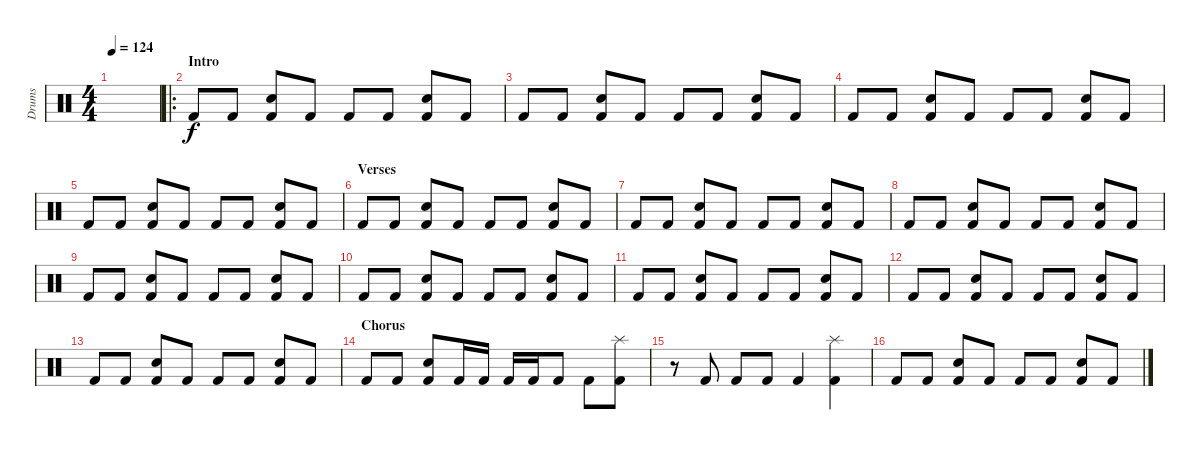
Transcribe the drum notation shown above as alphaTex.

\track ("Drums" "Drums") {instrument percussion}
\staff {score}
\articulation defaults
\ts (4 4)
\tempo 124
\clef neutral
\ks c
|
\ro
\section ("" "Intro")
"Kick (hit) 2".8 "Kick (hit) 2".8 ("Kick (hit) 2" "Electric Snare (hit)").8 "Kick (hit) 2".8 "Kick (hit) 2".8 "Kick (hit) 2".8 ("Kick (hit) 2" "Electric Snare (hit)").8 "Kick (hit) 2".8 |
"Kick (hit) 2".8 "Kick (hit) 2".8 ("Kick (hit) 2" "Electric Snare (hit)").8 "Kick (hit) 2".8 "Kick (hit) 2".8 "Kick (hit) 2".8 ("Kick (hit) 2" "Electric Snare (hit)").8 "Kick (hit) 2".8 |
"Kick (hit) 2".8 "Kick (hit) 2".8 ("Kick (hit) 2" "Electric Snare (hit)").8 "Kick (hit) 2".8 "Kick (hit) 2".8 "Kick (hit) 2".8 ("Kick (hit) 2" "Electric Snare (hit)").8 "Kick (hit) 2".8 |
"Kick (hit) 2".8 "Kick (hit) 2".8 ("Kick (hit) 2" "Electric Snare (hit)").8 "Kick (hit) 2".8 "Kick (hit) 2".8 "Kick (hit) 2".8 ("Kick (hit) 2" "Electric Snare (hit)").8 "Kick (hit) 2".8 |
\section ("" "Verses")
"Kick (hit) 2".8 "Kick (hit) 2".8 ("Kick (hit) 2" "Electric Snare (hit)").8 "Kick (hit) 2".8 "Kick (hit) 2".8 "Kick (hit) 2".8 ("Kick (hit) 2" "Electric Snare (hit)").8 "Kick (hit) 2".8 |
"Kick (hit) 2".8 "Kick (hit) 2".8 ("Kick (hit) 2" "Electric Snare (hit)").8 "Kick (hit) 2".8 "Kick (hit) 2".8 "Kick (hit) 2".8 ("Kick (hit) 2" "Electric Snare (hit)").8 "Kick (hit) 2".8 |
"Kick (hit) 2".8 "Kick (hit) 2".8 ("Kick (hit) 2" "Electric Snare (hit)").8 "Kick (hit) 2".8 "Kick (hit) 2".8 "Kick (hit) 2".8 ("Kick (hit) 2" "Electric Snare (hit)").8 "Kick (hit) 2".8 |
"Kick (hit) 2".8 "Kick (hit) 2".8 ("Kick (hit) 2" "Electric Snare (hit)").8 "Kick (hit) 2".8 "Kick (hit) 2".8 "Kick (hit) 2".8 ("Kick (hit) 2" "Electric Snare (hit)").8 "Kick (hit) 2".8 |
"Kick (hit) 2".8 "Kick (hit) 2".8 ("Kick (hit) 2" "Electric Snare (hit)").8 "Kick (hit) 2".8 "Kick (hit) 2".8 "Kick (hit) 2".8 ("Kick (hit) 2" "Electric Snare (hit)").8 "Kick (hit) 2".8 |
"Kick (hit) 2".8 "Kick (hit) 2".8 ("Kick (hit) 2" "Electric Snare (hit)").8 "Kick (hit) 2".8 "Kick (hit) 2".8 "Kick (hit) 2".8 ("Kick (hit) 2" "Electric Snare (hit)").8 "Kick (hit) 2".8 |
"Kick (hit) 2".8 "Kick (hit) 2".8 ("Kick (hit) 2" "Electric Snare (hit)").8 "Kick (hit) 2".8 "Kick (hit) 2".8 "Kick (hit) 2".8 ("Kick (hit) 2" "Electric Snare (hit)").8 "Kick (hit) 2".8 |
"Kick (hit) 2".8 "Kick (hit) 2".8 ("Kick (hit) 2" "Electric Snare (hit)").8 "Kick (hit) 2".8 "Kick (hit) 2".8 "Kick (hit) 2".8 ("Kick (hit) 2" "Electric Snare (hit)").8 "Kick (hit) 2".8 |
\section ("" "Chorus")
"Kick (hit) 2".8 "Kick (hit) 2".8 ("Kick (hit) 2" "Electric Snare (hit)").8 "Kick (hit) 2".16 "Kick (hit) 2".16 "Kick (hit) 2".16 "Kick (hit) 2".16 "Kick (hit) 2".8 "Kick (hit) 2".8 ("Kick (hit) 2" "Splash (hit)").8 |
r.8 "Kick (hit) 2".8 "Kick (hit) 2".8 "Kick (hit) 2".8 "Kick (hit) 2".4 ("Kick (hit) 2" "Splash (hit)").4 |
"Kick (hit) 2".8 "Kick (hit) 2".8 ("Kick (hit) 2" "Electric Snare (hit)").8 "Kick (hit) 2".8 "Kick (hit) 2".8 "Kick (hit) 2".8 ("Kick (hit) 2" "Electric Snare (hit)").8 "Kick (hit) 2".8
